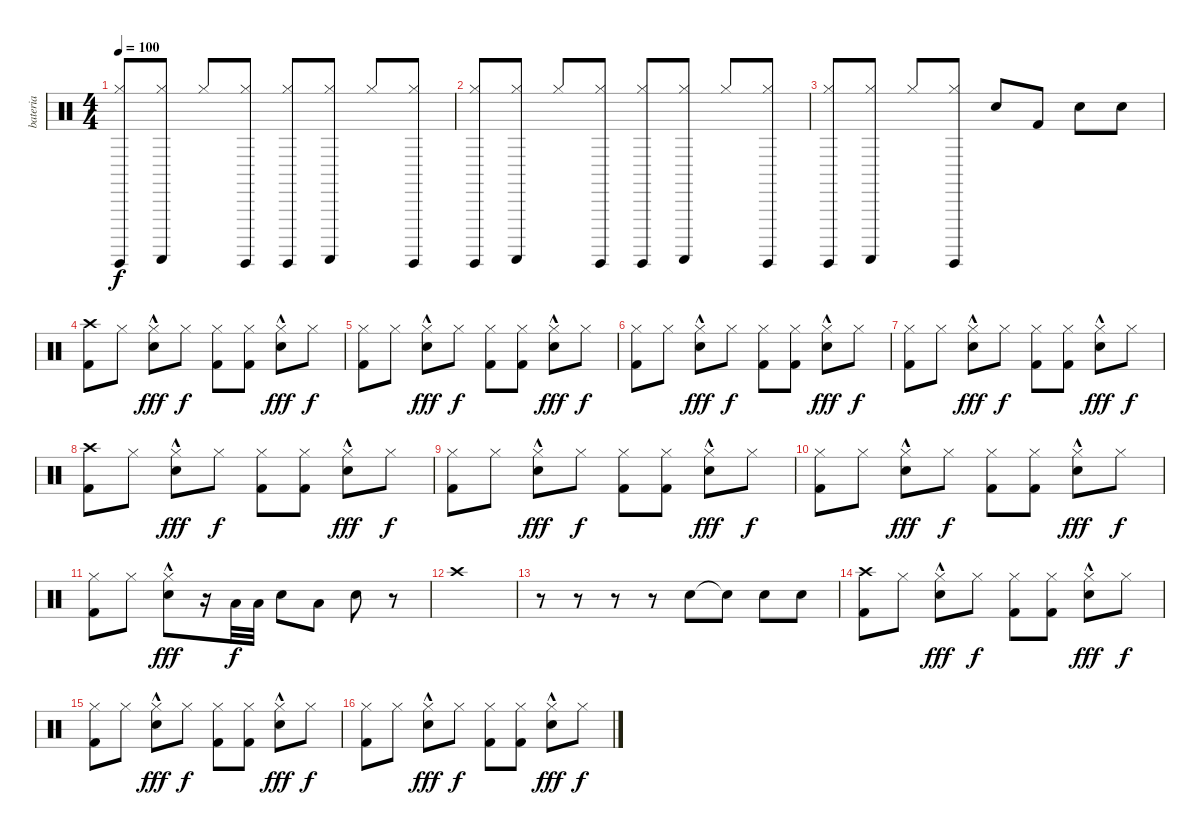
\track ("bateria" "bateria") {instrument percussion}
\staff {score}
\articulation defaults
\ts (4 4)
\tempo 100
\clef neutral
\ks c
("Hi-Hat (closed)" "Guiro (hit)").8{dy f} ("Hi-Hat (closed)" "Guiro (scrap-return)").8 "Hi-Hat (closed)".8 ("Hi-Hat (closed)" "Guiro (hit)").8 ("Hi-Hat (closed)" "Guiro (hit)").8 ("Hi-Hat (closed)" "Guiro (scrap-return)").8 "Hi-Hat (closed)".8 ("Hi-Hat (closed)" "Guiro (hit)").8 |
("Hi-Hat (closed)" "Guiro (hit)").8 ("Hi-Hat (closed)" "Guiro (scrap-return)").8 "Hi-Hat (closed)".8 ("Hi-Hat (closed)" "Guiro (hit)").8 ("Hi-Hat (closed)" "Guiro (hit)").8 ("Hi-Hat (closed)" "Guiro (scrap-return)").8 "Hi-Hat (closed)".8 ("Hi-Hat (closed)" "Guiro (hit)").8 |
("Hi-Hat (closed)" "Guiro (hit)").8 ("Hi-Hat (closed)" "Guiro (scrap-return)").8 "Hi-Hat (closed)".8 ("Hi-Hat (closed)" "Guiro (hit)").8 "Electric Snare (hit)".8 "Kick (hit) 2".8 "Electric Snare (hit)".8 "Electric Snare (hit)".8 |
("Crash high (hit)" "Kick (hit) 2").8 "Hi-Hat (closed)".8 ("Hi-Hat (closed)" "Electric Snare (hit)"{hac}).8{dy fff} "Hi-Hat (closed)".8{dy f} ("Hi-Hat (closed)" "Kick (hit) 2").8 ("Hi-Hat (closed)" "Kick (hit) 2").8 ("Hi-Hat (closed)" "Electric Snare (hit)"{hac}).8{dy fff} "Hi-Hat (closed)".8{dy f} |
("Hi-Hat (closed)" "Kick (hit) 2").8 "Hi-Hat (closed)".8 ("Hi-Hat (closed)" "Electric Snare (hit)"{hac}).8{dy fff} "Hi-Hat (closed)".8{dy f} ("Hi-Hat (closed)" "Kick (hit) 2").8 ("Hi-Hat (closed)" "Kick (hit) 2").8 ("Hi-Hat (closed)" "Electric Snare (hit)"{hac}).8{dy fff} "Hi-Hat (closed)".8{dy f} |
("Hi-Hat (closed)" "Kick (hit) 2").8 "Hi-Hat (closed)".8 ("Hi-Hat (closed)" "Electric Snare (hit)"{hac}).8{dy fff} "Hi-Hat (closed)".8{dy f} ("Hi-Hat (closed)" "Kick (hit) 2").8 ("Hi-Hat (closed)" "Kick (hit) 2").8 ("Hi-Hat (closed)" "Electric Snare (hit)"{hac}).8{dy fff} "Hi-Hat (closed)".8{dy f} |
("Hi-Hat (closed)" "Kick (hit) 2").8 "Hi-Hat (closed)".8 ("Hi-Hat (closed)" "Electric Snare (hit)"{hac}).8{dy fff} "Hi-Hat (closed)".8{dy f} ("Hi-Hat (closed)" "Kick (hit) 2").8 ("Hi-Hat (closed)" "Kick (hit) 2").8 ("Hi-Hat (closed)" "Electric Snare (hit)"{hac}).8{dy fff} "Hi-Hat (closed)".8{dy f} |
("Crash high (hit)" "Kick (hit) 2").8 "Hi-Hat (closed)".8 ("Hi-Hat (closed)" "Electric Snare (hit)"{hac}).8{dy fff} "Hi-Hat (closed)".8{dy f} ("Hi-Hat (closed)" "Kick (hit) 2").8 ("Hi-Hat (closed)" "Kick (hit) 2").8 ("Hi-Hat (closed)" "Electric Snare (hit)"{hac}).8{dy fff} "Hi-Hat (closed)".8{dy f} |
("Hi-Hat (closed)" "Kick (hit) 2").8 "Hi-Hat (closed)".8 ("Hi-Hat (closed)" "Electric Snare (hit)"{hac}).8{dy fff} "Hi-Hat (closed)".8{dy f} ("Hi-Hat (closed)" "Kick (hit) 2").8 ("Hi-Hat (closed)" "Kick (hit) 2").8 ("Hi-Hat (closed)" "Electric Snare (hit)"{hac}).8{dy fff} "Hi-Hat (closed)".8{dy f} |
("Hi-Hat (closed)" "Kick (hit) 2").8 "Hi-Hat (closed)".8 ("Hi-Hat (closed)" "Electric Snare (hit)"{hac}).8{dy fff} "Hi-Hat (closed)".8{dy f} ("Hi-Hat (closed)" "Kick (hit) 2").8 ("Hi-Hat (closed)" "Kick (hit) 2").8 ("Hi-Hat (closed)" "Electric Snare (hit)"{hac}).8{dy fff} "Hi-Hat (closed)".8{dy f} |
("Hi-Hat (closed)" "Kick (hit) 2").8 "Hi-Hat (closed)".8 ("Hi-Hat (closed)" "Electric Snare (hit)"{hac}).8{dy fff} r.16 "Low Tom (hit)".32{dy f} "Low Tom (hit)".32 "Electric Snare (hit)".8 "Low Tom (hit)".8 "Electric Snare (hit)".8 r.8 |
"Crash high (hit)".1 |
r.8 r.8 r.8 r.8 "Electric Snare (hit)".8 "Electric Snare (hit)"{t}.8 "Electric Snare (hit)".8 "Electric Snare (hit)".8 |
("Crash high (hit)" "Kick (hit) 2").8 "Hi-Hat (closed)".8 ("Hi-Hat (closed)" "Electric Snare (hit)"{hac}).8{dy fff} "Hi-Hat (closed)".8{dy f} ("Hi-Hat (closed)" "Kick (hit) 2").8 ("Hi-Hat (closed)" "Kick (hit) 2").8 ("Hi-Hat (closed)" "Electric Snare (hit)"{hac}).8{dy fff} "Hi-Hat (closed)".8{dy f} |
("Hi-Hat (closed)" "Kick (hit) 2").8 "Hi-Hat (closed)".8 ("Hi-Hat (closed)" "Electric Snare (hit)"{hac}).8{dy fff} "Hi-Hat (closed)".8{dy f} ("Hi-Hat (closed)" "Kick (hit) 2").8 ("Hi-Hat (closed)" "Kick (hit) 2").8 ("Hi-Hat (closed)" "Electric Snare (hit)"{hac}).8{dy fff} "Hi-Hat (closed)".8{dy f} |
("Hi-Hat (closed)" "Kick (hit) 2").8 "Hi-Hat (closed)".8 ("Hi-Hat (closed)" "Electric Snare (hit)"{hac}).8{dy fff} "Hi-Hat (closed)".8{dy f} ("Hi-Hat (closed)" "Kick (hit) 2").8 ("Hi-Hat (closed)" "Kick (hit) 2").8 ("Hi-Hat (closed)" "Electric Snare (hit)"{hac}).8{dy fff} "Hi-Hat (closed)".8{dy f}
